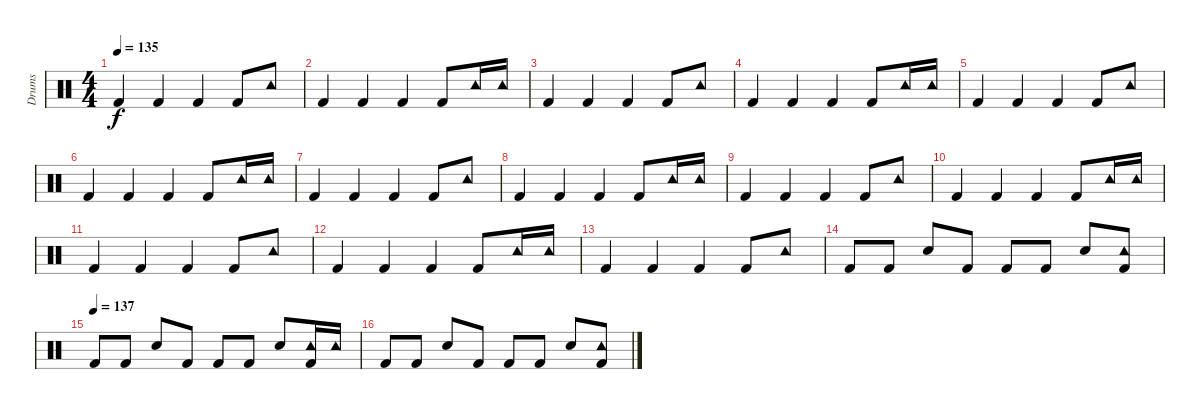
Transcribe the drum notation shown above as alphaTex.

\track ("Drums" "Drums") {instrument percussion}
\staff {score}
\articulation defaults
\ts (4 4)
\tempo 135
\clef neutral
\ks c "Kick (hit) 2".4{dy f} "Kick (hit) 2".4 "Kick (hit) 2".4 "Kick (hit) 2".8 "Tambourine (hit)".8
|
"Kick (hit) 2".4 "Kick (hit) 2".4 "Kick (hit) 2".4 "Kick (hit) 2".8 "Tambourine (hit)".16 "Tambourine (hit)".16 |
"Kick (hit) 2".4 "Kick (hit) 2".4 "Kick (hit) 2".4 "Kick (hit) 2".8 "Tambourine (hit)".8 |
"Kick (hit) 2".4 "Kick (hit) 2".4 "Kick (hit) 2".4 "Kick (hit) 2".8 "Tambourine (hit)".16 "Tambourine (hit)".16 |
"Kick (hit) 2".4 "Kick (hit) 2".4 "Kick (hit) 2".4 "Kick (hit) 2".8 "Tambourine (hit)".8 |
"Kick (hit) 2".4 "Kick (hit) 2".4 "Kick (hit) 2".4 "Kick (hit) 2".8 "Tambourine (hit)".16 "Tambourine (hit)".16 |
"Kick (hit) 2".4 "Kick (hit) 2".4 "Kick (hit) 2".4 "Kick (hit) 2".8 "Tambourine (hit)".8 |
"Kick (hit) 2".4 "Kick (hit) 2".4 "Kick (hit) 2".4 "Kick (hit) 2".8 "Tambourine (hit)".16 "Tambourine (hit)".16 |
"Kick (hit) 2".4 "Kick (hit) 2".4 "Kick (hit) 2".4 "Kick (hit) 2".8 "Tambourine (hit)".8 |
"Kick (hit) 2".4 "Kick (hit) 2".4 "Kick (hit) 2".4 "Kick (hit) 2".8 "Tambourine (hit)".16 "Tambourine (hit)".16 |
"Kick (hit) 2".4 "Kick (hit) 2".4 "Kick (hit) 2".4 "Kick (hit) 2".8 "Tambourine (hit)".8 |
"Kick (hit) 2".4 "Kick (hit) 2".4 "Kick (hit) 2".4 "Kick (hit) 2".8 "Tambourine (hit)".16 "Tambourine (hit)".16 |
"Kick (hit) 2".4 "Kick (hit) 2".4 "Kick (hit) 2".4 "Kick (hit) 2".8 "Tambourine (hit)".8 |
"Kick (hit) 2".8 "Kick (hit) 2".8 "Snare (hit) 2".8 "Kick (hit) 2".8 "Kick (hit) 2".8 "Kick (hit) 2".8 "Snare (hit) 2".8 ("Tambourine (hit)" "Kick (hit) 2").8 |
\tempo (137)
"Kick (hit) 2".8 "Kick (hit) 2".8 "Snare (hit) 2".8 "Kick (hit) 2".8 "Kick (hit) 2".8 "Kick (hit) 2".8 "Snare (hit) 2".8 ("Tambourine (hit)" "Kick (hit) 2").16 "Tambourine (hit)".16 |
"Kick (hit) 2".8 "Kick (hit) 2".8 "Snare (hit) 2".8 "Kick (hit) 2".8 "Kick (hit) 2".8 "Kick (hit) 2".8 "Snare (hit) 2".8 ("Tambourine (hit)" "Kick (hit) 2").8
